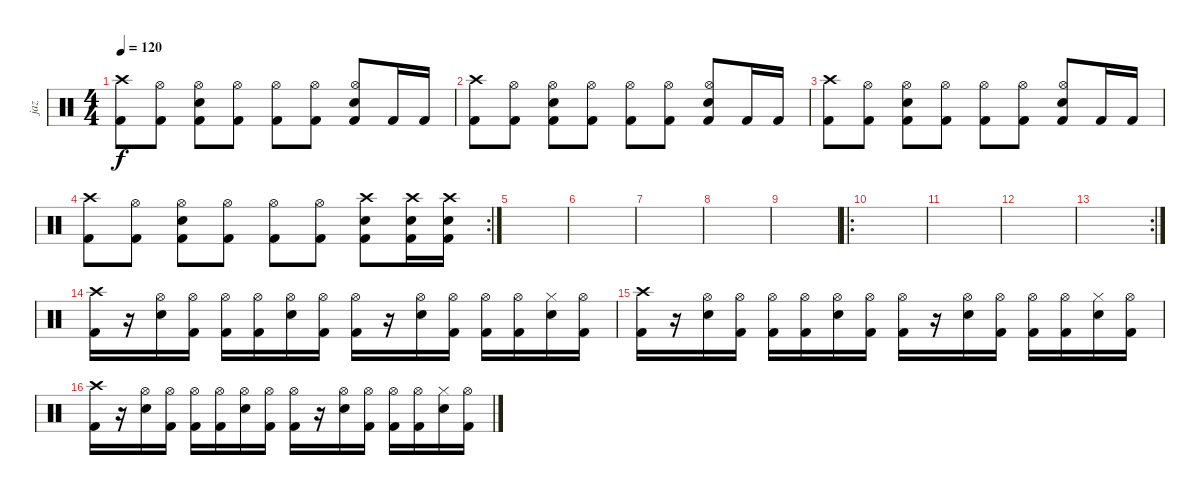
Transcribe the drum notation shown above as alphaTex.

\track ("jaz" "jaz") {instrument percussion}
\staff {score}
\articulation defaults
\ts (4 4)
\tempo 120
\clef neutral
\ks c
("Crash high (hit)" "Kick (hit) 2").8{dy f} ("Hi-Hat (open)" "Kick (hit) 2").8 ("Hi-Hat (open)" "Electric Snare (hit)" "Kick (hit) 2").8 ("Hi-Hat (open)" "Kick (hit) 2").8 ("Hi-Hat (open)" "Kick (hit) 2").8 ("Hi-Hat (open)" "Kick (hit) 2").8 ("Hi-Hat (open)" "Electric Snare (hit)" "Kick (hit) 2").8 "Kick (hit) 2".16 "Kick (hit) 2".16 |
("Crash high (hit)" "Kick (hit) 2").8 ("Hi-Hat (open)" "Kick (hit) 2").8 ("Hi-Hat (open)" "Electric Snare (hit)" "Kick (hit) 2").8 ("Hi-Hat (open)" "Kick (hit) 2").8 ("Hi-Hat (open)" "Kick (hit) 2").8 ("Hi-Hat (open)" "Kick (hit) 2").8 ("Hi-Hat (open)" "Electric Snare (hit)" "Kick (hit) 2").8 "Kick (hit) 2".16 "Kick (hit) 2".16 |
("Crash high (hit)" "Kick (hit) 2").8 ("Hi-Hat (open)" "Kick (hit) 2").8 ("Hi-Hat (open)" "Electric Snare (hit)" "Kick (hit) 2").8 ("Hi-Hat (open)" "Kick (hit) 2").8 ("Hi-Hat (open)" "Kick (hit) 2").8 ("Hi-Hat (open)" "Kick (hit) 2").8 ("Hi-Hat (open)" "Electric Snare (hit)" "Kick (hit) 2").8 "Kick (hit) 2".16 "Kick (hit) 2".16 |
\rc 2
("Crash high (hit)" "Kick (hit) 2").8 ("Hi-Hat (open)" "Kick (hit) 2").8 ("Hi-Hat (open)" "Electric Snare (hit)" "Kick (hit) 2").8 ("Hi-Hat (open)" "Kick (hit) 2").8 ("Hi-Hat (open)" "Kick (hit) 2").8 ("Hi-Hat (open)" "Kick (hit) 2").8 ("Crash high (hit)" "Electric Snare (hit)" "Kick (hit) 2").8 ("Crash high (hit)" "Electric Snare (hit)" "Kick (hit) 2").16 ("Crash high (hit)" "Electric Snare (hit)" "Kick (hit) 2").16 |
|
|
|
|
|
\ro
|
|
|
\rc 2
|
("Crash high (hit)" "Kick (hit) 2").16 r.16 ("Hi-Hat (open)" "Electric Snare (hit)").16 ("Hi-Hat (open)" "Kick (hit) 2").16 ("Hi-Hat (open)" "Kick (hit) 2").16 ("Hi-Hat (open)" "Kick (hit) 2").16 ("Hi-Hat (open)" "Electric Snare (hit)").16 ("Hi-Hat (open)" "Kick (hit) 2").16 ("Hi-Hat (open)" "Kick (hit) 2").16 r.16 ("Hi-Hat (open)" "Electric Snare (hit)").16 ("Hi-Hat (open)" "Kick (hit) 2").16 ("Hi-Hat (open)" "Kick (hit) 2").16 ("Hi-Hat (open)" "Kick (hit) 2").16 ("Hi-Hat (closed)" "Electric Snare (hit)").16 ("Hi-Hat (open)" "Kick (hit) 2").16 |
("Crash high (hit)" "Kick (hit) 2").16 r.16 ("Hi-Hat (open)" "Electric Snare (hit)").16 ("Hi-Hat (open)" "Kick (hit) 2").16 ("Hi-Hat (open)" "Kick (hit) 2").16 ("Hi-Hat (open)" "Kick (hit) 2").16 ("Hi-Hat (open)" "Electric Snare (hit)").16 ("Hi-Hat (open)" "Kick (hit) 2").16 ("Hi-Hat (open)" "Kick (hit) 2").16 r.16 ("Hi-Hat (open)" "Electric Snare (hit)").16 ("Hi-Hat (open)" "Kick (hit) 2").16 ("Hi-Hat (open)" "Kick (hit) 2").16 ("Hi-Hat (open)" "Kick (hit) 2").16 ("Hi-Hat (closed)" "Electric Snare (hit)").16 ("Hi-Hat (open)" "Kick (hit) 2").16 |
("Crash high (hit)" "Kick (hit) 2").16 r.16 ("Hi-Hat (open)" "Electric Snare (hit)").16 ("Hi-Hat (open)" "Kick (hit) 2").16 ("Hi-Hat (open)" "Kick (hit) 2").16 ("Hi-Hat (open)" "Kick (hit) 2").16 ("Hi-Hat (open)" "Electric Snare (hit)").16 ("Hi-Hat (open)" "Kick (hit) 2").16 ("Hi-Hat (open)" "Kick (hit) 2").16 r.16 ("Hi-Hat (open)" "Electric Snare (hit)").16 ("Hi-Hat (open)" "Kick (hit) 2").16 ("Hi-Hat (open)" "Kick (hit) 2").16 ("Hi-Hat (open)" "Kick (hit) 2").16 ("Hi-Hat (closed)" "Electric Snare (hit)").16 ("Hi-Hat (open)" "Kick (hit) 2").16
